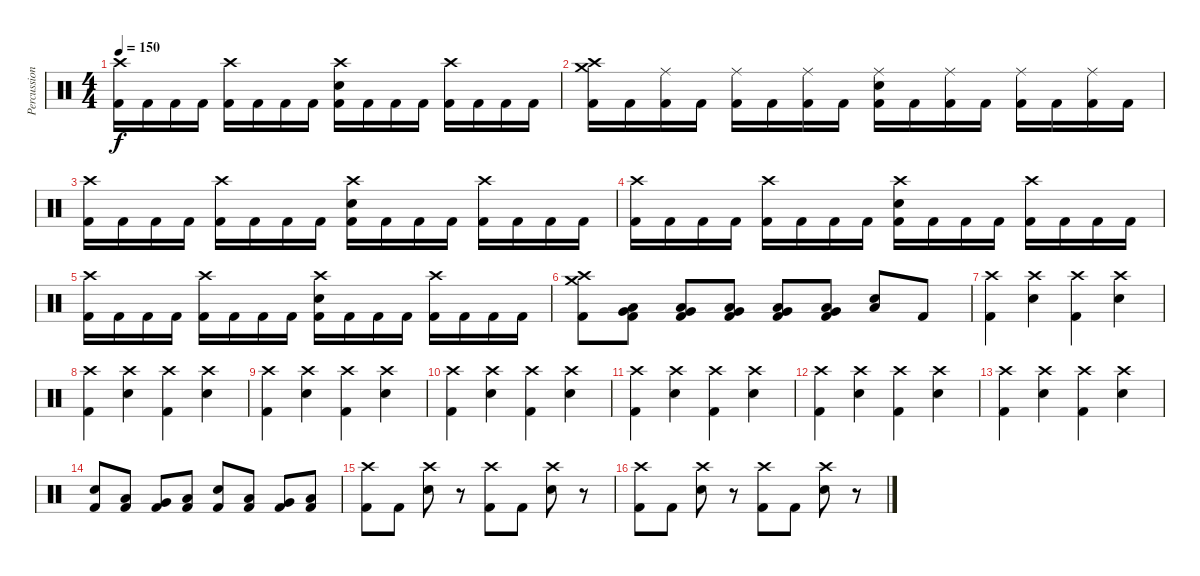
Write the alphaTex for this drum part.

\track ("Percussion" "Percussion") {instrument percussion}
\staff {score}
\articulation defaults
\ts (4 4)
\tempo 150
\clef neutral
\ks c
("Crash high (hit)" "Kick (hit) 2").16{dy f} "Kick (hit) 2".16 "Kick (hit) 2".16 "Kick (hit) 2".16 ("Crash high (hit)" "Kick (hit) 2").16 "Kick (hit) 2".16 "Kick (hit) 2".16 "Kick (hit) 2".16 ("Crash high (hit)" "Electric Snare (hit)" "Kick (hit) 2").16 "Kick (hit) 2".16 "Kick (hit) 2".16 "Kick (hit) 2".16 ("Crash high (hit)" "Kick (hit) 2").16 "Kick (hit) 2".16 "Kick (hit) 2".16 "Kick (hit) 2".16 |
("Crash medium (hit)" "Crash high (hit)" "Kick (hit) 2").16 "Kick (hit) 2".16 ("Ride (middle)" "Kick (hit) 2").16 "Kick (hit) 2".16 ("Ride (middle)" "Kick (hit) 2").16 "Kick (hit) 2".16 ("Ride (middle)" "Kick (hit) 2").16 "Kick (hit) 2".16 ("Ride (middle)" "Electric Snare (hit)" "Kick (hit) 2").16 "Kick (hit) 2".16 ("Ride (middle)" "Kick (hit) 2").16 "Kick (hit) 2".16 ("Ride (middle)" "Kick (hit) 2").16 "Kick (hit) 2".16 ("Ride (middle)" "Kick (hit) 2").16 "Kick (hit) 2".16 |
("Crash high (hit)" "Kick (hit) 2").16 "Kick (hit) 2".16 "Kick (hit) 2".16 "Kick (hit) 2".16 ("Crash high (hit)" "Kick (hit) 2").16 "Kick (hit) 2".16 "Kick (hit) 2".16 "Kick (hit) 2".16 ("Crash high (hit)" "Electric Snare (hit)" "Kick (hit) 2").16 "Kick (hit) 2".16 "Kick (hit) 2".16 "Kick (hit) 2".16 ("Crash high (hit)" "Kick (hit) 2").16 "Kick (hit) 2".16 "Kick (hit) 2".16 "Kick (hit) 2".16 |
("Crash high (hit)" "Kick (hit) 2").16 "Kick (hit) 2".16 "Kick (hit) 2".16 "Kick (hit) 2".16 ("Crash high (hit)" "Kick (hit) 2").16 "Kick (hit) 2".16 "Kick (hit) 2".16 "Kick (hit) 2".16 ("Crash high (hit)" "Electric Snare (hit)" "Kick (hit) 2").16 "Kick (hit) 2".16 "Kick (hit) 2".16 "Kick (hit) 2".16 ("Crash high (hit)" "Kick (hit) 2").16 "Kick (hit) 2".16 "Kick (hit) 2".16 "Kick (hit) 2".16 |
("Crash high (hit)" "Kick (hit) 2").16 "Kick (hit) 2".16 "Kick (hit) 2".16 "Kick (hit) 2".16 ("Crash high (hit)" "Kick (hit) 2").16 "Kick (hit) 2".16 "Kick (hit) 2".16 "Kick (hit) 2".16 ("Crash high (hit)" "Electric Snare (hit)" "Kick (hit) 2").16 "Kick (hit) 2".16 "Kick (hit) 2".16 "Kick (hit) 2".16 ("Crash high (hit)" "Kick (hit) 2").16 "Kick (hit) 2".16 "Kick (hit) 2".16 "Kick (hit) 2".16 |
("Crash medium (hit)" "Crash high (hit)" "Kick (hit) 2").8 ("Very Low Tom (hit)" "Low Floor Tom (hit)" "Kick (hit) 2").8 ("Very Low Tom (hit)" "Low Floor Tom (hit)" "Kick (hit) 2").8 ("Very Low Tom (hit)" "Low Floor Tom (hit)" "Kick (hit) 2").8 ("Very Low Tom (hit)" "Low Floor Tom (hit)" "Kick (hit) 2").8 ("Very Low Tom (hit)" "Low Floor Tom (hit)" "Kick (hit) 2").8 ("Low Tom (hit)" "Electric Snare (hit)").8 "Kick (hit) 2".8 |
("Crash high (hit)" "Kick (hit) 2").4 ("Crash high (hit)" "Electric Snare (hit)").4 ("Crash high (hit)" "Kick (hit) 2").4 ("Crash high (hit)" "Electric Snare (hit)").4 |
("Crash high (hit)" "Kick (hit) 2").4 ("Crash high (hit)" "Electric Snare (hit)").4 ("Crash high (hit)" "Kick (hit) 2").4 ("Crash high (hit)" "Electric Snare (hit)").4 |
("Crash high (hit)" "Kick (hit) 2").4 ("Crash high (hit)" "Electric Snare (hit)").4 ("Crash high (hit)" "Kick (hit) 2").4 ("Crash high (hit)" "Electric Snare (hit)").4 |
("Crash high (hit)" "Kick (hit) 2").4 ("Crash high (hit)" "Electric Snare (hit)").4 ("Crash high (hit)" "Kick (hit) 2").4 ("Crash high (hit)" "Electric Snare (hit)").4 |
("Crash high (hit)" "Kick (hit) 2").4 ("Crash high (hit)" "Electric Snare (hit)").4 ("Crash high (hit)" "Kick (hit) 2").4 ("Crash high (hit)" "Electric Snare (hit)").4 |
("Crash high (hit)" "Kick (hit) 2").4 ("Crash high (hit)" "Electric Snare (hit)").4 ("Crash high (hit)" "Kick (hit) 2").4 ("Crash high (hit)" "Electric Snare (hit)").4 |
("Crash high (hit)" "Kick (hit) 2").4 ("Crash high (hit)" "Electric Snare (hit)").4 ("Crash high (hit)" "Kick (hit) 2").4 ("Crash high (hit)" "Electric Snare (hit)").4 |
("Electric Snare (hit)" "Kick (hit) 2").8 ("Low Tom (hit)" "Kick (hit) 2").8 ("Very Low Tom (hit)" "Kick (hit) 2").8 ("Low Floor Tom (hit)" "Kick (hit) 2").8 ("Electric Snare (hit)" "Kick (hit) 2").8 ("Low Tom (hit)" "Kick (hit) 2").8 ("Very Low Tom (hit)" "Kick (hit) 2").8 ("Low Floor Tom (hit)" "Kick (hit) 2").8 |
("Crash high (hit)" "Kick (hit) 2").8 "Kick (hit) 2".8 ("Crash high (hit)" "Electric Snare (hit)").8 r.8 ("Crash high (hit)" "Kick (hit) 2").8 "Kick (hit) 2".8 ("Crash high (hit)" "Electric Snare (hit)").8 r.8 |
("Crash high (hit)" "Kick (hit) 2").8 "Kick (hit) 2".8 ("Crash high (hit)" "Electric Snare (hit)").8 r.8 ("Crash high (hit)" "Kick (hit) 2").8 "Kick (hit) 2".8 ("Crash high (hit)" "Electric Snare (hit)").8 r.8
